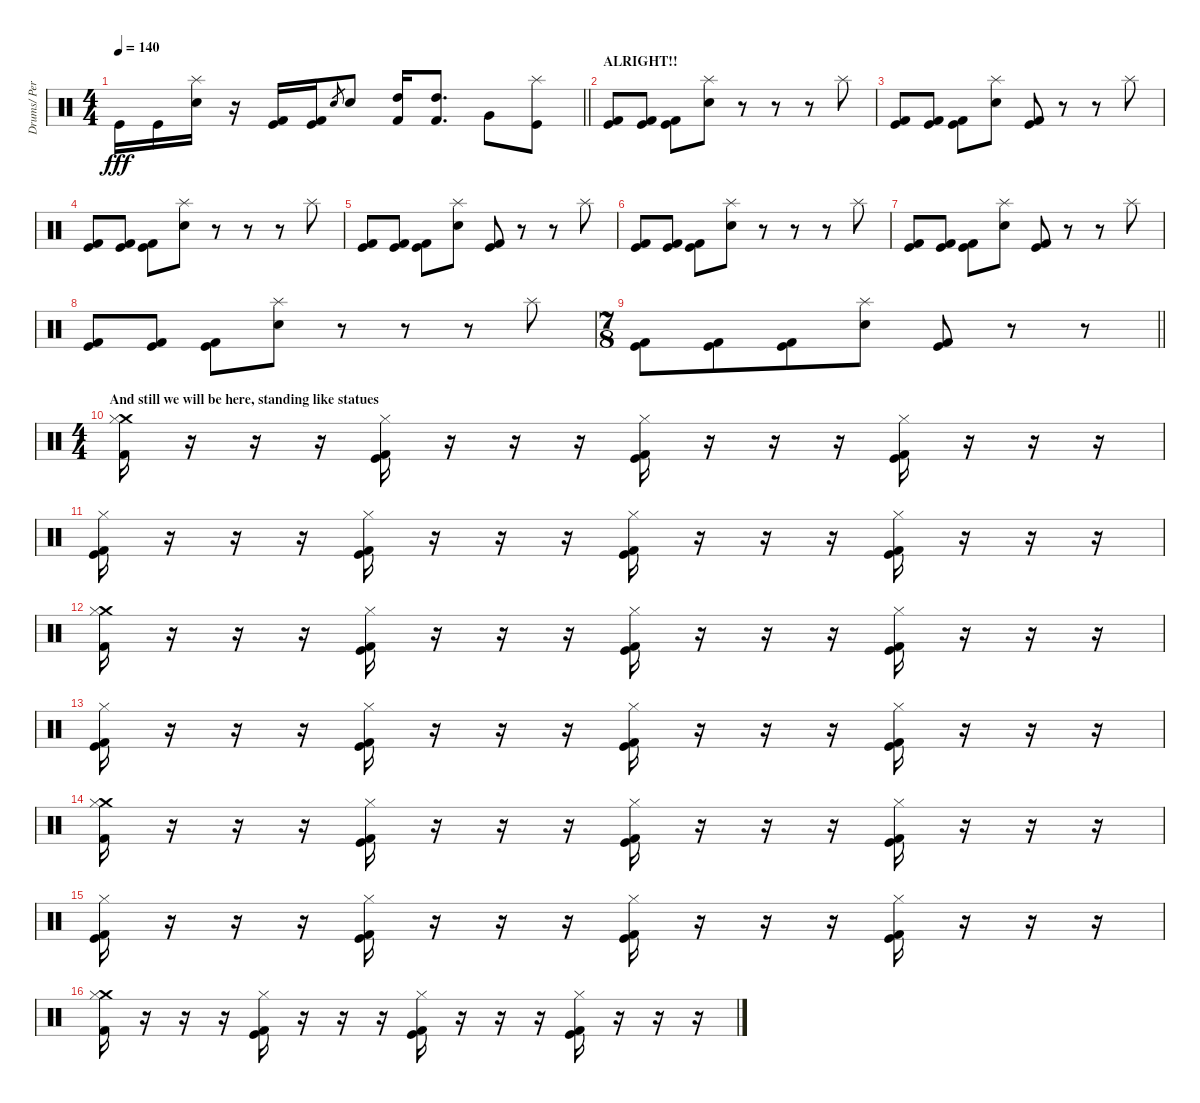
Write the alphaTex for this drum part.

\track ("Drums/ Percussion- Rob" "Drums/ Per") {instrument percussion}
\staff {score}
\articulation defaults
\ts (4 4)
\tempo 140
\clef neutral
\barLineRight lightlight
\ks c "Kick (hit)".16{dy fff} "Kick (hit)".16
("Splash (hit)" "Snare (hit) 2").16 r.16 ("Kick (hit)" "Kick (hit) 2").16 ("Kick (hit)" "Kick (hit) 2").16 "Snare (hit) 2".8{gr} "Snare (hit) 2".8 ("High Tom (hit)" "Kick (hit) 2").16 ("High Tom (hit)" "Kick (hit) 2").8{d} "Very Low Tom (hit)".8 ("Splash (hit)" "Kick (hit)").8 |
\section ("" "ALRIGHT!!")
("Kick (hit)" "Kick (hit) 2").8 ("Kick (hit)" "Kick (hit) 2").8 ("Kick (hit)" "Kick (hit) 2").8 ("Splash (hit)" "Snare (hit) 2").8 r.8 r.8 r.8 "Splash (hit)".8 |
("Kick (hit)" "Kick (hit) 2").8 ("Kick (hit)" "Kick (hit) 2").8 ("Kick (hit)" "Kick (hit) 2").8 ("Splash (hit)" "Snare (hit) 2").8 ("Kick (hit)" "Kick (hit) 2").8 r.8 r.8 "Splash (hit)".8 |
("Kick (hit)" "Kick (hit) 2").8 ("Kick (hit)" "Kick (hit) 2").8 ("Kick (hit)" "Kick (hit) 2").8 ("Splash (hit)" "Snare (hit) 2").8 r.8 r.8 r.8 "Splash (hit)".8 |
("Kick (hit)" "Kick (hit) 2").8 ("Kick (hit)" "Kick (hit) 2").8 ("Kick (hit)" "Kick (hit) 2").8 ("Splash (hit)" "Snare (hit) 2").8 ("Kick (hit)" "Kick (hit) 2").8 r.8 r.8 "Splash (hit)".8 |
("Kick (hit)" "Kick (hit) 2").8 ("Kick (hit)" "Kick (hit) 2").8 ("Kick (hit)" "Kick (hit) 2").8 ("Splash (hit)" "Snare (hit) 2").8 r.8 r.8 r.8 "Splash (hit)".8 |
("Kick (hit)" "Kick (hit) 2").8 ("Kick (hit)" "Kick (hit) 2").8 ("Kick (hit)" "Kick (hit) 2").8 ("Splash (hit)" "Snare (hit) 2").8 ("Kick (hit)" "Kick (hit) 2").8 r.8 r.8 "Splash (hit)".8 |
("Kick (hit)" "Kick (hit) 2").8 ("Kick (hit)" "Kick (hit) 2").8 ("Kick (hit)" "Kick (hit) 2").8 ("Splash (hit)" "Snare (hit) 2").8 r.8 r.8 r.8 "Splash (hit)".8 |
\ts (7 8)
\barLineRight lightlight
("Kick (hit)" "Kick (hit) 2").8 ("Kick (hit)" "Kick (hit) 2").8 ("Kick (hit)" "Kick (hit) 2").8 ("Splash (hit)" "Snare (hit) 2").8 ("Kick (hit)" "Kick (hit) 2").8 r.8 r.8 |
\ts (4 4)
\section ("" "And still we will be here, standing like statues")
("Crash medium (hit)" "Kick (hit) 2" "Hi-Hat (closed)").16 r.16 r.16 r.16 ("Kick (hit)" "Kick (hit) 2" "Hi-Hat (closed)").16 r.16 r.16 r.16 ("Kick (hit)" "Kick (hit) 2" "Hi-Hat (closed)").16 r.16 r.16 r.16 ("Kick (hit)" "Kick (hit) 2" "Hi-Hat (closed)").16 r.16 r.16 r.16 |
("Kick (hit)" "Kick (hit) 2" "Hi-Hat (closed)").16 r.16 r.16 r.16 ("Kick (hit)" "Kick (hit) 2" "Hi-Hat (closed)").16 r.16 r.16 r.16 ("Kick (hit)" "Kick (hit) 2" "Hi-Hat (closed)").16 r.16 r.16 r.16 ("Kick (hit)" "Kick (hit) 2" "Hi-Hat (closed)").16 r.16 r.16 r.16 |
("Crash medium (hit)" "Kick (hit) 2" "Hi-Hat (closed)").16 r.16 r.16 r.16 ("Kick (hit)" "Kick (hit) 2" "Hi-Hat (closed)").16 r.16 r.16 r.16 ("Kick (hit)" "Kick (hit) 2" "Hi-Hat (closed)").16 r.16 r.16 r.16 ("Kick (hit)" "Kick (hit) 2" "Hi-Hat (closed)").16 r.16 r.16 r.16 |
("Kick (hit)" "Kick (hit) 2" "Hi-Hat (closed)").16 r.16 r.16 r.16 ("Kick (hit)" "Kick (hit) 2" "Hi-Hat (closed)").16 r.16 r.16 r.16 ("Kick (hit)" "Kick (hit) 2" "Hi-Hat (closed)").16 r.16 r.16 r.16 ("Kick (hit)" "Kick (hit) 2" "Hi-Hat (closed)").16 r.16 r.16 r.16 |
("Crash medium (hit)" "Kick (hit) 2" "Hi-Hat (closed)").16 r.16 r.16 r.16 ("Kick (hit)" "Kick (hit) 2" "Hi-Hat (closed)").16 r.16 r.16 r.16 ("Kick (hit)" "Kick (hit) 2" "Hi-Hat (closed)").16 r.16 r.16 r.16 ("Kick (hit)" "Kick (hit) 2" "Hi-Hat (closed)").16 r.16 r.16 r.16 |
("Kick (hit)" "Kick (hit) 2" "Hi-Hat (closed)").16 r.16 r.16 r.16 ("Kick (hit)" "Kick (hit) 2" "Hi-Hat (closed)").16 r.16 r.16 r.16 ("Kick (hit)" "Kick (hit) 2" "Hi-Hat (closed)").16 r.16 r.16 r.16 ("Kick (hit)" "Kick (hit) 2" "Hi-Hat (closed)").16 r.16 r.16 r.16 |
("Crash medium (hit)" "Kick (hit) 2" "Hi-Hat (closed)").16 r.16 r.16 r.16 ("Kick (hit)" "Kick (hit) 2" "Hi-Hat (closed)").16 r.16 r.16 r.16 ("Kick (hit)" "Kick (hit) 2" "Hi-Hat (closed)").16 r.16 r.16 r.16 ("Kick (hit)" "Kick (hit) 2" "Hi-Hat (closed)").16 r.16 r.16 r.16
